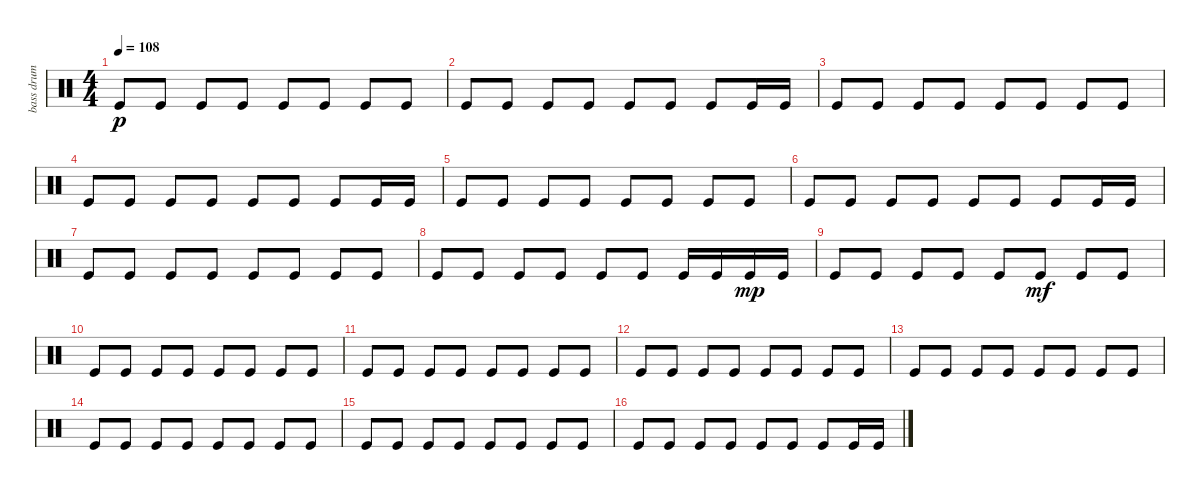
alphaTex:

\track ("bass drum           " "bass drum ") {instrument percussion}
\staff {score}
\articulation defaults
\ts (4 4)
\tempo 108
\clef neutral
\ks c "Kick (hit)".8{dy p} "Kick (hit)".8 "Kick (hit)".8 "Kick (hit)".8 "Kick (hit)".8 "Kick (hit)".8 "Kick (hit)".8 "Kick (hit)".8
|
"Kick (hit)".8 "Kick (hit)".8 "Kick (hit)".8 "Kick (hit)".8 "Kick (hit)".8 "Kick (hit)".8 "Kick (hit)".8 "Kick (hit)".16 "Kick (hit)".16 |
"Kick (hit)".8 "Kick (hit)".8 "Kick (hit)".8 "Kick (hit)".8 "Kick (hit)".8 "Kick (hit)".8 "Kick (hit)".8 "Kick (hit)".8 |
"Kick (hit)".8 "Kick (hit)".8 "Kick (hit)".8 "Kick (hit)".8 "Kick (hit)".8 "Kick (hit)".8 "Kick (hit)".8 "Kick (hit)".16 "Kick (hit)".16 |
"Kick (hit)".8 "Kick (hit)".8 "Kick (hit)".8 "Kick (hit)".8 "Kick (hit)".8 "Kick (hit)".8 "Kick (hit)".8 "Kick (hit)".8 |
"Kick (hit)".8 "Kick (hit)".8 "Kick (hit)".8 "Kick (hit)".8 "Kick (hit)".8 "Kick (hit)".8 "Kick (hit)".8 "Kick (hit)".16 "Kick (hit)".16 |
"Kick (hit)".8 "Kick (hit)".8 "Kick (hit)".8 "Kick (hit)".8 "Kick (hit)".8 "Kick (hit)".8 "Kick (hit)".8 "Kick (hit)".8 |
"Kick (hit)".8 "Kick (hit)".8 "Kick (hit)".8 "Kick (hit)".8 "Kick (hit)".8 "Kick (hit)".8 "Kick (hit)".16 "Kick (hit)".16 "Kick (hit)".16{dy mp} "Kick (hit)".16 |
"Kick (hit)".8 "Kick (hit)".8 "Kick (hit)".8 "Kick (hit)".8 "Kick (hit)".8 "Kick (hit)".8{dy mf} "Kick (hit)".8 "Kick (hit)".8 |
"Kick (hit)".8 "Kick (hit)".8 "Kick (hit)".8 "Kick (hit)".8 "Kick (hit)".8 "Kick (hit)".8 "Kick (hit)".8 "Kick (hit)".8 |
"Kick (hit)".8 "Kick (hit)".8 "Kick (hit)".8 "Kick (hit)".8 "Kick (hit)".8 "Kick (hit)".8 "Kick (hit)".8 "Kick (hit)".8 |
"Kick (hit)".8 "Kick (hit)".8 "Kick (hit)".8 "Kick (hit)".8 "Kick (hit)".8 "Kick (hit)".8 "Kick (hit)".8 "Kick (hit)".8 |
"Kick (hit)".8 "Kick (hit)".8 "Kick (hit)".8 "Kick (hit)".8 "Kick (hit)".8 "Kick (hit)".8 "Kick (hit)".8 "Kick (hit)".8 |
"Kick (hit)".8 "Kick (hit)".8 "Kick (hit)".8 "Kick (hit)".8 "Kick (hit)".8 "Kick (hit)".8 "Kick (hit)".8 "Kick (hit)".8 |
"Kick (hit)".8 "Kick (hit)".8 "Kick (hit)".8 "Kick (hit)".8 "Kick (hit)".8 "Kick (hit)".8 "Kick (hit)".8 "Kick (hit)".8 |
"Kick (hit)".8 "Kick (hit)".8 "Kick (hit)".8 "Kick (hit)".8 "Kick (hit)".8 "Kick (hit)".8 "Kick (hit)".8 "Kick (hit)".16 "Kick (hit)".16
